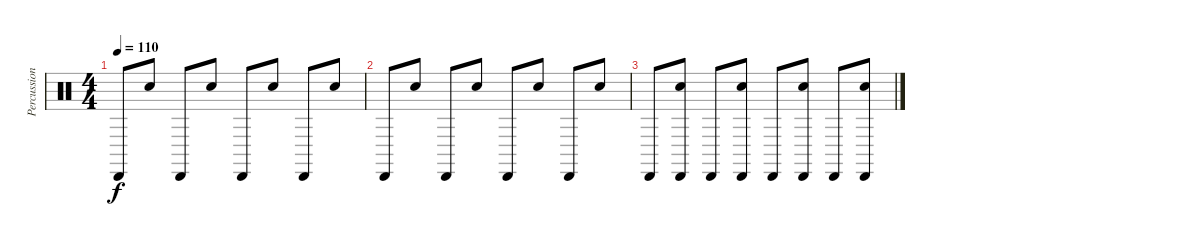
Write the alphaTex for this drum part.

\track ("Percussions" "Percussion") {instrument percussion}
\staff {score}
\articulation defaults
\ts (4 4)
\tempo 110
\clef neutral
\ks c "Cabasa (hit)".8{dy f} "Electric Snare (hit)".8 "Cabasa (hit)".8 "Electric Snare (hit)".8 "Cabasa (hit)".8 "Electric Snare (hit)".8 "Cabasa (hit)".8 "Electric Snare (hit)".8
|
"Cabasa (hit)".8 "Electric Snare (hit)".8 "Cabasa (hit)".8 "Electric Snare (hit)".8 "Cabasa (hit)".8 "Electric Snare (hit)".8 "Cabasa (hit)".8 "Electric Snare (hit)".8 |
"Cabasa (hit)".8 ("Electric Snare (hit)" "Cabasa (hit)").8 "Cabasa (hit)".8 ("Electric Snare (hit)" "Cabasa (hit)").8 "Cabasa (hit)".8 ("Electric Snare (hit)" "Cabasa (hit)").8 "Cabasa (hit)".8 ("Electric Snare (hit)" "Cabasa (hit)").8
